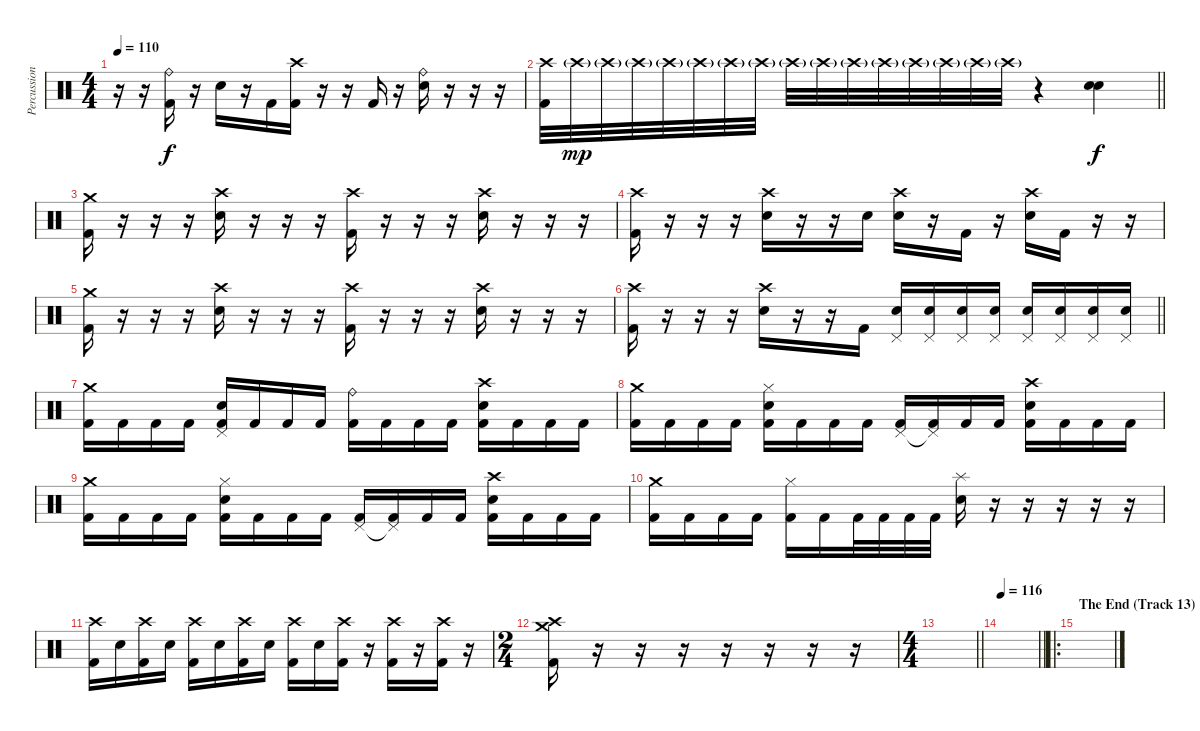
\track ("Percussion (Moose)" "Percussion") {instrument percussion}
\staff {score}
\articulation defaults
\ts (4 4)
\tempo 110
\clef neutral
\ks c
r.16{dy f} r.16 ("Ride (bell)" "Kick (hit) 2").16 r.16 "Electric Snare (hit)".16 r.16 "Kick (hit) 2".16 ("Crash high (hit)" "Kick (hit) 2").16 r.16 r.16 "Kick (hit) 2".16 r.16 ("Ride (bell)" "Electric Snare (hit)").16 r.16 r.16 r.16 |
\barLineRight lightlight
("Crash high (hit)" "Kick (hit) 2").32{volume 16} "Crash high (hit)"{g}.32{dy mp} "Crash high (hit)"{g}.32 "Crash high (hit)"{g}.32 "Crash high (hit)"{g}.32 "Crash high (hit)"{g}.32 "Crash high (hit)"{g}.32 "Crash high (hit)"{g}.32 "Crash high (hit)"{g}.32 "Crash high (hit)"{g}.32 "Crash high (hit)"{g}.32 "Crash high (hit)"{g}.32 "Crash high (hit)"{g}.32 "Crash high (hit)"{g}.32 "Crash high (hit)"{g}.32 "Crash high (hit)"{g}.32 r.4 ("Electric Snare (hit)" "Electric Snare (hit)").4{dy f} |
("Crash medium (hit)" "Kick (hit) 2").16 r.16 r.16 r.16 ("Crash high (hit)" "Electric Snare (hit)").16 r.16 r.16 r.16 ("Crash high (hit)" "Kick (hit) 2").16 r.16 r.16 r.16 ("Crash high (hit)" "Electric Snare (hit)").16 r.16 r.16 r.16 |
("Crash high (hit)" "Kick (hit) 2").16 r.16 r.16 r.16 ("Crash high (hit)" "Electric Snare (hit)").16 r.16 r.16 "Electric Snare (hit)".16 ("Crash high (hit)" "Electric Snare (hit)").16 r.16 "Kick (hit) 2".16 r.16 ("Crash high (hit)" "Electric Snare (hit)").16 "Kick (hit) 2".16 r.16 r.16 |
("Crash medium (hit)" "Kick (hit) 2").16 r.16 r.16 r.16 ("Crash high (hit)" "Electric Snare (hit)").16 r.16 r.16 r.16 ("Crash high (hit)" "Kick (hit) 2").16 r.16 r.16 r.16 ("Crash high (hit)" "Electric Snare (hit)").16 r.16 r.16 r.16 |
\barLineRight lightlight
("Crash high (hit)" "Kick (hit) 2").16 r.16 r.16 r.16 ("Crash high (hit)" "Electric Snare (hit)").16 r.16 r.16 "Kick (hit) 2".16 ("Pedal Hi-Hat (hit)" "Electric Snare (hit)").16 ("Pedal Hi-Hat (hit)" "Electric Snare (hit)").16 ("Pedal Hi-Hat (hit)" "Electric Snare (hit)").16 ("Pedal Hi-Hat (hit)" "Electric Snare (hit)").16 ("Pedal Hi-Hat (hit)" "Electric Snare (hit)").16 ("Pedal Hi-Hat (hit)" "Electric Snare (hit)").16 ("Pedal Hi-Hat (hit)" "Electric Snare (hit)").16 ("Pedal Hi-Hat (hit)" "Electric Snare (hit)").16 |
("Crash medium (hit)" "Kick (hit) 2").16 "Kick (hit) 2".16 "Kick (hit) 2".16 "Kick (hit) 2".16 ("Pedal Hi-Hat (hit)" "Electric Snare (hit)" "Kick (hit) 2").16 "Kick (hit) 2".16 "Kick (hit) 2".16 "Kick (hit) 2".16 ("Ride (bell)" "Kick (hit) 2").16 "Kick (hit) 2".16 "Kick (hit) 2".16 "Kick (hit) 2".16 ("Crash high (hit)" "Electric Snare (hit)" "Kick (hit) 2").16 "Kick (hit) 2".16 "Kick (hit) 2".16 "Kick (hit) 2".16 |
("Crash medium (hit)" "Kick (hit) 2").16 "Kick (hit) 2".16 "Kick (hit) 2".16 "Kick (hit) 2".16 ("Hi-Hat (closed)" "Electric Snare (hit)" "Kick (hit) 2").16 "Kick (hit) 2".16 "Kick (hit) 2".16 "Kick (hit) 2".16 ("Pedal Hi-Hat (hit)" "Kick (hit) 2").16 ("Pedal Hi-Hat (hit)"{t} "Kick (hit) 2").16 "Kick (hit) 2".16 "Kick (hit) 2".16 ("Crash high (hit)" "Electric Snare (hit)" "Kick (hit) 2").16 "Kick (hit) 2".16 "Kick (hit) 2".16 "Kick (hit) 2".16 |
("Crash medium (hit)" "Kick (hit) 2").16 "Kick (hit) 2".16 "Kick (hit) 2".16 "Kick (hit) 2".16 ("Hi-Hat (closed)" "Electric Snare (hit)" "Kick (hit) 2").16 "Kick (hit) 2".16 "Kick (hit) 2".16 "Kick (hit) 2".16 ("Pedal Hi-Hat (hit)" "Kick (hit) 2").16 ("Pedal Hi-Hat (hit)"{t} "Kick (hit) 2").16 "Kick (hit) 2".16 "Kick (hit) 2".16 ("Crash high (hit)" "Electric Snare (hit)" "Kick (hit) 2").16 "Kick (hit) 2".16 "Kick (hit) 2".16 "Kick (hit) 2".16 |
("Crash medium (hit)" "Kick (hit) 2").16 "Kick (hit) 2".16 "Kick (hit) 2".16 "Kick (hit) 2".16 ("Hi-Hat (closed)" "Kick (hit) 2").16 "Kick (hit) 2".16 "Kick (hit) 2".32 "Kick (hit) 2".32 "Kick (hit) 2".32 "Kick (hit) 2".32 ("Splash (hit)" "Electric Snare (hit)").16 r.16 r.16 r.16 r.16 r.16 |
("Crash high (hit)" "Kick (hit) 2").16 "Electric Snare (hit)".16 ("Crash high (hit)" "Kick (hit) 2").16 "Electric Snare (hit)".16 ("Crash high (hit)" "Kick (hit) 2").16 "Electric Snare (hit)".16 ("Crash high (hit)" "Kick (hit) 2").16 "Electric Snare (hit)".16 ("Crash high (hit)" "Kick (hit) 2").16 "Electric Snare (hit)".16 ("Crash high (hit)" "Kick (hit) 2").16 r.16 ("Crash high (hit)" "Kick (hit) 2").16 r.16 ("Crash high (hit)" "Kick (hit) 2").16 r.16 |
\ts (2 4)
("Crash medium (hit)" "Crash high (hit)" "Kick (hit) 2").16 r.16 r.16 r.16 r.16 r.16 r.16 r.16 |
\ts (4 4)
\barLineRight lightlight
|
\tempo 116
\barLineRight lightlight
|
\ro
\section ("" "The End (Track 13)")
